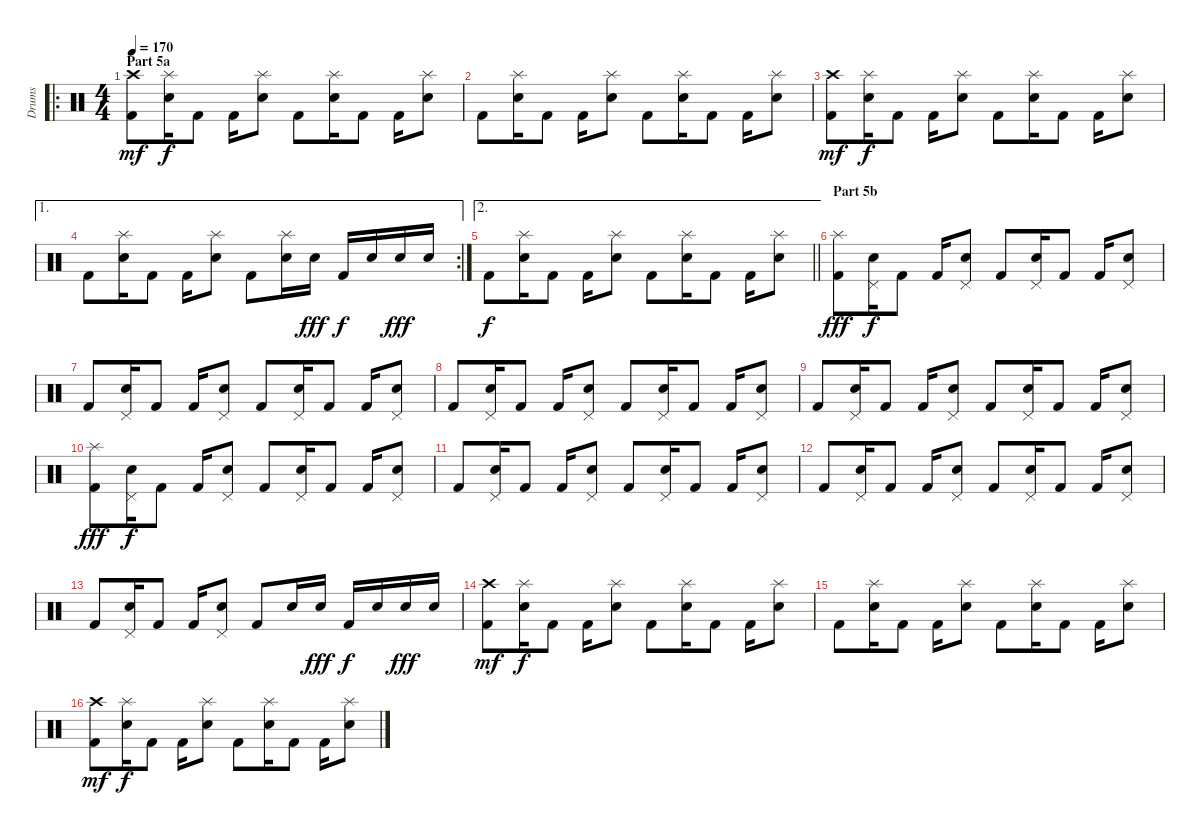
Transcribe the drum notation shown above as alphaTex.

\track ("Drums" "Drums") {instrument percussion}
\staff {score}
\articulation defaults
\ro
\ts (4 4)
\section ("" "Part 5a")
\tempo 170
\clef neutral
\ks c
("Kick (hit) 2" "Crash high (hit)").8{dy mf} ("Electric Snare (hit)" "Splash (hit)").16{dy f} "Kick (hit) 2".8 "Kick (hit) 2".16 ("Electric Snare (hit)" "Splash (hit)").8 "Kick (hit) 2".8 ("Electric Snare (hit)" "Splash (hit)").16 "Kick (hit) 2".8 "Kick (hit) 2".16 ("Electric Snare (hit)" "Splash (hit)").8 |
"Kick (hit) 2".8 ("Electric Snare (hit)" "Splash (hit)").16 "Kick (hit) 2".8 "Kick (hit) 2".16 ("Electric Snare (hit)" "Splash (hit)").8 "Kick (hit) 2".8 ("Electric Snare (hit)" "Splash (hit)").16 "Kick (hit) 2".8 "Kick (hit) 2".16 ("Electric Snare (hit)" "Splash (hit)").8 |
("Kick (hit) 2" "Crash high (hit)").8{dy mf} ("Electric Snare (hit)" "Splash (hit)").16{dy f} "Kick (hit) 2".8 "Kick (hit) 2".16 ("Electric Snare (hit)" "Splash (hit)").8 "Kick (hit) 2".8 ("Electric Snare (hit)" "Splash (hit)").16 "Kick (hit) 2".8 "Kick (hit) 2".16 ("Electric Snare (hit)" "Splash (hit)").8 |
\ae 1
\rc 2 "Kick (hit) 2".8
("Electric Snare (hit)" "Splash (hit)").16 "Kick (hit) 2".8 "Kick (hit) 2".16 ("Electric Snare (hit)" "Splash (hit)").8 "Kick (hit) 2".8 ("Electric Snare (hit)" "Splash (hit)").16 "Electric Snare (hit)".16{dy fff} "Kick (hit) 2".16{dy f} "Electric Snare (hit)".16 "Electric Snare (hit)".16{dy fff} "Electric Snare (hit)".16 |
\ae 2
\barLineRight lightlight "Kick (hit) 2".8{dy f}
("Electric Snare (hit)" "Splash (hit)").16 "Kick (hit) 2".8 "Kick (hit) 2".16 ("Electric Snare (hit)" "Splash (hit)").8 "Kick (hit) 2".8 ("Electric Snare (hit)" "Splash (hit)").16 "Kick (hit) 2".8 "Kick (hit) 2".16 ("Electric Snare (hit)" "Splash (hit)").8 |
\section ("" "Part 5b")
("Kick (hit) 2" "Splash (hit)").8{dy fff} ("Electric Snare (hit)" "Pedal Hi-Hat (hit)").16{dy f} "Kick (hit) 2".8 "Kick (hit) 2".16 ("Electric Snare (hit)" "Pedal Hi-Hat (hit)").8 "Kick (hit) 2".8 ("Electric Snare (hit)" "Pedal Hi-Hat (hit)").16 "Kick (hit) 2".8 "Kick (hit) 2".16 ("Electric Snare (hit)" "Pedal Hi-Hat (hit)").8 |
"Kick (hit) 2".8 ("Electric Snare (hit)" "Pedal Hi-Hat (hit)").16 "Kick (hit) 2".8 "Kick (hit) 2".16 ("Electric Snare (hit)" "Pedal Hi-Hat (hit)").8 "Kick (hit) 2".8 ("Electric Snare (hit)" "Pedal Hi-Hat (hit)").16 "Kick (hit) 2".8 "Kick (hit) 2".16 ("Electric Snare (hit)" "Pedal Hi-Hat (hit)").8 |
"Kick (hit) 2".8 ("Electric Snare (hit)" "Pedal Hi-Hat (hit)").16 "Kick (hit) 2".8 "Kick (hit) 2".16 ("Electric Snare (hit)" "Pedal Hi-Hat (hit)").8 "Kick (hit) 2".8 ("Electric Snare (hit)" "Pedal Hi-Hat (hit)").16 "Kick (hit) 2".8 "Kick (hit) 2".16 ("Electric Snare (hit)" "Pedal Hi-Hat (hit)").8 |
"Kick (hit) 2".8 ("Electric Snare (hit)" "Pedal Hi-Hat (hit)").16 "Kick (hit) 2".8 "Kick (hit) 2".16 ("Electric Snare (hit)" "Pedal Hi-Hat (hit)").8 "Kick (hit) 2".8 ("Electric Snare (hit)" "Pedal Hi-Hat (hit)").16 "Kick (hit) 2".8 "Kick (hit) 2".16 ("Electric Snare (hit)" "Pedal Hi-Hat (hit)").8 |
("Kick (hit) 2" "Splash (hit)").8{dy fff} ("Electric Snare (hit)" "Pedal Hi-Hat (hit)").16{dy f} "Kick (hit) 2".8 "Kick (hit) 2".16 ("Electric Snare (hit)" "Pedal Hi-Hat (hit)").8 "Kick (hit) 2".8 ("Electric Snare (hit)" "Pedal Hi-Hat (hit)").16 "Kick (hit) 2".8 "Kick (hit) 2".16 ("Electric Snare (hit)" "Pedal Hi-Hat (hit)").8 |
"Kick (hit) 2".8 ("Electric Snare (hit)" "Pedal Hi-Hat (hit)").16 "Kick (hit) 2".8 "Kick (hit) 2".16 ("Electric Snare (hit)" "Pedal Hi-Hat (hit)").8 "Kick (hit) 2".8 ("Electric Snare (hit)" "Pedal Hi-Hat (hit)").16 "Kick (hit) 2".8 "Kick (hit) 2".16 ("Electric Snare (hit)" "Pedal Hi-Hat (hit)").8 |
"Kick (hit) 2".8 ("Electric Snare (hit)" "Pedal Hi-Hat (hit)").16 "Kick (hit) 2".8 "Kick (hit) 2".16 ("Electric Snare (hit)" "Pedal Hi-Hat (hit)").8 "Kick (hit) 2".8 ("Electric Snare (hit)" "Pedal Hi-Hat (hit)").16 "Kick (hit) 2".8 "Kick (hit) 2".16 ("Electric Snare (hit)" "Pedal Hi-Hat (hit)").8 |
"Kick (hit) 2".8 ("Electric Snare (hit)" "Pedal Hi-Hat (hit)").16 "Kick (hit) 2".8 "Kick (hit) 2".16 ("Electric Snare (hit)" "Pedal Hi-Hat (hit)").8 "Kick (hit) 2".8 "Electric Snare (hit)".16 "Electric Snare (hit)".16{dy fff} "Kick (hit) 2".16{dy f} "Electric Snare (hit)".16 "Electric Snare (hit)".16{dy fff} "Electric Snare (hit)".16 |
("Kick (hit) 2" "Crash high (hit)").8{dy mf} ("Electric Snare (hit)" "Splash (hit)").16{dy f} "Kick (hit) 2".8 "Kick (hit) 2".16 ("Electric Snare (hit)" "Splash (hit)").8 "Kick (hit) 2".8 ("Electric Snare (hit)" "Splash (hit)").16 "Kick (hit) 2".8 "Kick (hit) 2".16 ("Electric Snare (hit)" "Splash (hit)").8 |
"Kick (hit) 2".8 ("Electric Snare (hit)" "Splash (hit)").16 "Kick (hit) 2".8 "Kick (hit) 2".16 ("Electric Snare (hit)" "Splash (hit)").8 "Kick (hit) 2".8 ("Electric Snare (hit)" "Splash (hit)").16 "Kick (hit) 2".8 "Kick (hit) 2".16 ("Electric Snare (hit)" "Splash (hit)").8 |
("Kick (hit) 2" "Crash high (hit)").8{dy mf} ("Electric Snare (hit)" "Splash (hit)").16{dy f} "Kick (hit) 2".8 "Kick (hit) 2".16 ("Electric Snare (hit)" "Splash (hit)").8 "Kick (hit) 2".8 ("Electric Snare (hit)" "Splash (hit)").16 "Kick (hit) 2".8 "Kick (hit) 2".16 ("Electric Snare (hit)" "Splash (hit)").8
